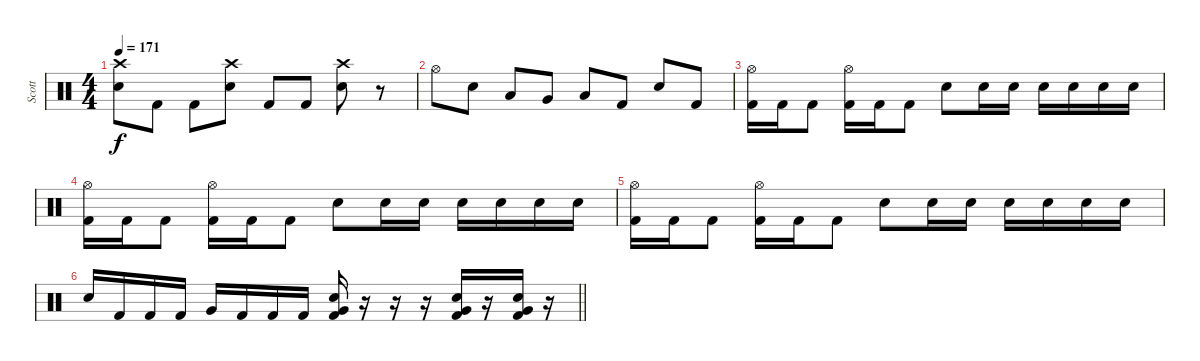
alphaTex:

\track ("Scott" "Scott") {instrument percussion}
\staff {score}
\articulation defaults
\ts (4 4)
\tempo 171
\clef neutral
\ks c
("Crash high (hit)" "Electric Snare (hit)").8{dy f} "Kick (hit) 2".8 "Kick (hit) 2".8 ("Crash high (hit)" "Electric Snare (hit)").8 "Kick (hit) 2".8 "Kick (hit) 2".8 ("Crash high (hit)" "Electric Snare (hit)").8 r.8 |
"Hi-Hat (open)".8 "Electric Snare (hit)".8 "Low Tom (hit)".8 "Very Low Tom (hit)".8 "Low Floor Tom (hit)".8 "Kick (hit) 2".8 "Electric Snare (hit)".8 "Kick (hit) 2".8 |
("Hi-Hat (open)" "Kick (hit) 2").16 "Kick (hit) 2".16 "Kick (hit) 2".8 ("Hi-Hat (open)" "Kick (hit) 2").16 "Kick (hit) 2".16 "Kick (hit) 2".8 "Electric Snare (hit)".8 "Electric Snare (hit)".16 "Electric Snare (hit)".16 "Electric Snare (hit)".16 "Electric Snare (hit)".16 "Electric Snare (hit)".16 "Electric Snare (hit)".16 |
("Hi-Hat (open)" "Kick (hit) 2").16 "Kick (hit) 2".16 "Kick (hit) 2".8 ("Hi-Hat (open)" "Kick (hit) 2").16 "Kick (hit) 2".16 "Kick (hit) 2".8 "Electric Snare (hit)".8 "Electric Snare (hit)".16 "Electric Snare (hit)".16 "Electric Snare (hit)".16 "Electric Snare (hit)".16 "Electric Snare (hit)".16 "Electric Snare (hit)".16 |
("Hi-Hat (open)" "Kick (hit) 2").16 "Kick (hit) 2".16 "Kick (hit) 2".8 ("Hi-Hat (open)" "Kick (hit) 2").16 "Kick (hit) 2".16 "Kick (hit) 2".8 "Electric Snare (hit)".8 "Electric Snare (hit)".16 "Electric Snare (hit)".16 "Electric Snare (hit)".16 "Electric Snare (hit)".16 "Electric Snare (hit)".16 "Electric Snare (hit)".16 |
\barLineRight lightlight "Electric Snare (hit)".16 "Kick (hit) 2".16 "Kick (hit) 2".16 "Kick (hit) 2".16 "Very Low Tom (hit)".16 "Kick (hit) 2".16 "Kick (hit) 2".16 "Kick (hit) 2".16
("Very Low Tom (hit)" "Electric Snare (hit)" "Kick (hit) 2").16 r.16 r.16 r.16 ("Very Low Tom (hit)" "Electric Snare (hit)" "Kick (hit) 2").16 r.16 ("Very Low Tom (hit)" "Electric Snare (hit)" "Kick (hit) 2").16 r.16
